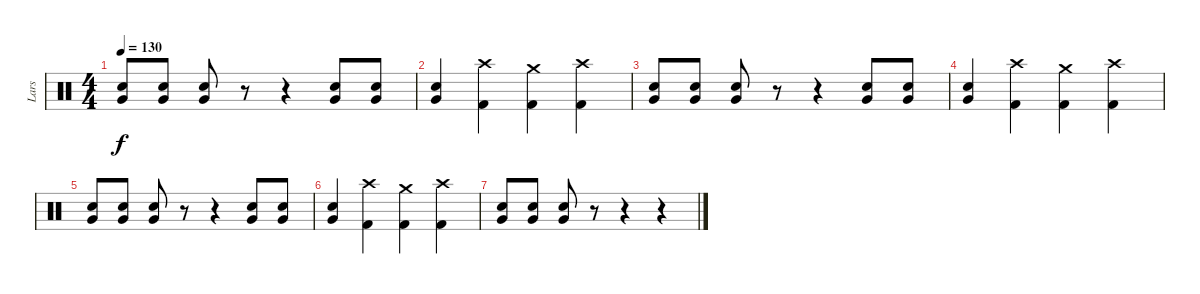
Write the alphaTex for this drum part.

\track ("Lars" "Lars") {instrument percussion}
\staff {score}
\articulation defaults
\ts (4 4)
\tempo 130
\clef neutral
\ks c
("Electric Snare (hit)" "Very Low Tom (hit)").8{bu 120 dy f} ("Electric Snare (hit)" "Very Low Tom (hit)").8{bu 120} ("Electric Snare (hit)" "Very Low Tom (hit)").8{bu 120} r.8 r.4 ("Electric Snare (hit)" "Very Low Tom (hit)").8{bu 120} ("Electric Snare (hit)" "Very Low Tom (hit)").8{bu 120} |
("Electric Snare (hit)" "Very Low Tom (hit)").4 ("Kick (hit) 2" "Crash high (hit)").4 ("Kick (hit) 2" "Crash medium (hit)").4 ("Kick (hit) 2" "Crash high (hit)").4 |
("Electric Snare (hit)" "Very Low Tom (hit)").8{bu 120} ("Electric Snare (hit)" "Very Low Tom (hit)").8{bu 120} ("Electric Snare (hit)" "Very Low Tom (hit)").8{bu 120} r.8 r.4 ("Electric Snare (hit)" "Very Low Tom (hit)").8{bu 120} ("Electric Snare (hit)" "Very Low Tom (hit)").8{bu 120} |
("Electric Snare (hit)" "Very Low Tom (hit)").4 ("Kick (hit) 2" "Crash high (hit)").4 ("Kick (hit) 2" "Crash medium (hit)").4 ("Kick (hit) 2" "Crash high (hit)").4 |
("Electric Snare (hit)" "Very Low Tom (hit)").8{bu 120} ("Electric Snare (hit)" "Very Low Tom (hit)").8{bu 120} ("Electric Snare (hit)" "Very Low Tom (hit)").8{bu 120} r.8 r.4 ("Electric Snare (hit)" "Very Low Tom (hit)").8{bu 120} ("Electric Snare (hit)" "Very Low Tom (hit)").8{bu 120} |
("Electric Snare (hit)" "Very Low Tom (hit)").4 ("Kick (hit) 2" "Crash high (hit)").4 ("Kick (hit) 2" "Crash medium (hit)").4 ("Kick (hit) 2" "Crash high (hit)").4 |
("Electric Snare (hit)" "Very Low Tom (hit)").8{bu 120} ("Electric Snare (hit)" "Very Low Tom (hit)").8{bu 120} ("Electric Snare (hit)" "Very Low Tom (hit)").8{bu 120} r.8 r.4 r.4
